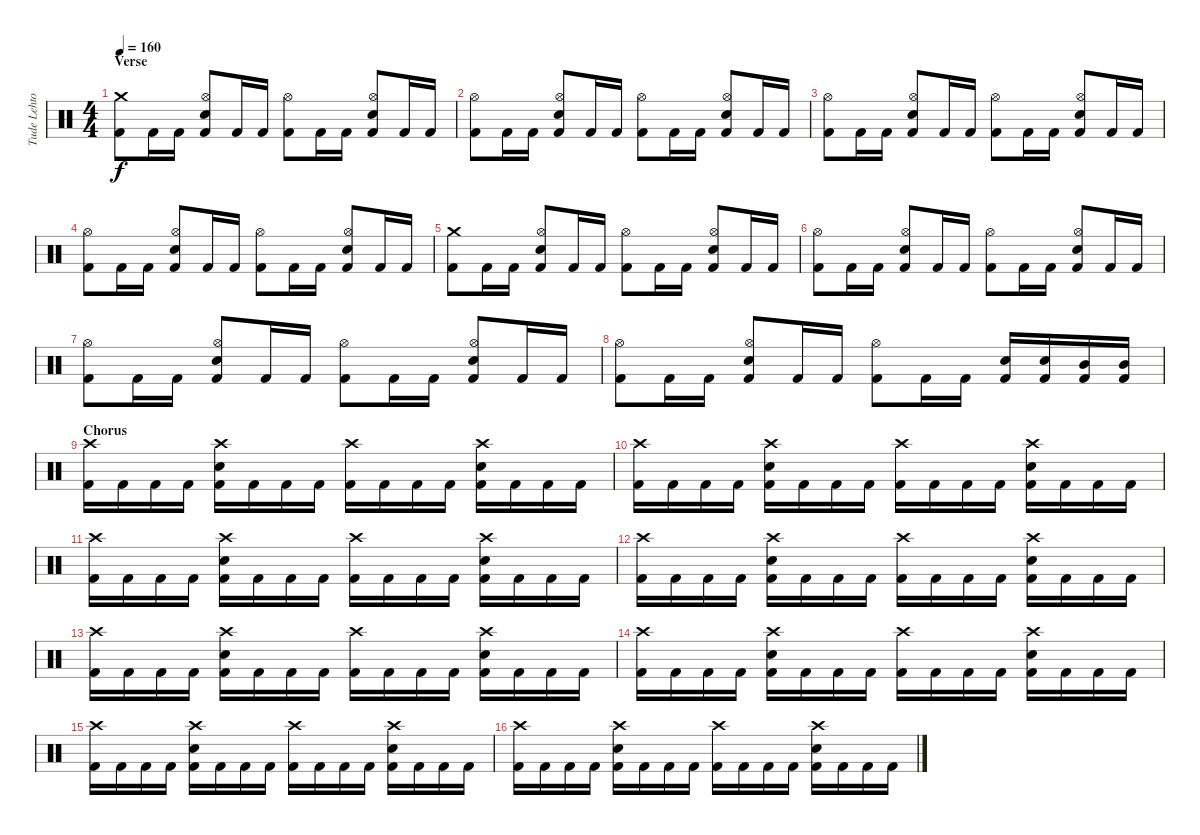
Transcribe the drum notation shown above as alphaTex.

\track ("Tude Lehtonen" "Tude Lehto") {instrument percussion}
\staff {score}
\articulation defaults
\ts (4 4)
\section ("" "Verse")
\tempo 160
\clef neutral
\ks c
("Crash medium (hit)" "Kick (hit) 2").8{dy f} "Kick (hit) 2".16 "Kick (hit) 2".16 ("Hi-Hat (open)" "Snare (hit) 2" "Kick (hit) 2").8 "Kick (hit) 2".16 "Kick (hit) 2".16 ("Hi-Hat (open)" "Kick (hit) 2").8 "Kick (hit) 2".16 "Kick (hit) 2".16 ("Hi-Hat (open)" "Snare (hit) 2" "Kick (hit) 2").8 "Kick (hit) 2".16 "Kick (hit) 2".16 |
("Hi-Hat (open)" "Kick (hit) 2").8 "Kick (hit) 2".16 "Kick (hit) 2".16 ("Hi-Hat (open)" "Snare (hit) 2" "Kick (hit) 2").8 "Kick (hit) 2".16 "Kick (hit) 2".16 ("Hi-Hat (open)" "Kick (hit) 2").8 "Kick (hit) 2".16 "Kick (hit) 2".16 ("Hi-Hat (open)" "Snare (hit) 2" "Kick (hit) 2").8 "Kick (hit) 2".16 "Kick (hit) 2".16 |
("Hi-Hat (open)" "Kick (hit) 2").8 "Kick (hit) 2".16 "Kick (hit) 2".16 ("Hi-Hat (open)" "Snare (hit) 2" "Kick (hit) 2").8 "Kick (hit) 2".16 "Kick (hit) 2".16 ("Hi-Hat (open)" "Kick (hit) 2").8 "Kick (hit) 2".16 "Kick (hit) 2".16 ("Hi-Hat (open)" "Snare (hit) 2" "Kick (hit) 2").8 "Kick (hit) 2".16 "Kick (hit) 2".16 |
("Hi-Hat (open)" "Kick (hit) 2").8 "Kick (hit) 2".16 "Kick (hit) 2".16 ("Hi-Hat (open)" "Snare (hit) 2" "Kick (hit) 2").8 "Kick (hit) 2".16 "Kick (hit) 2".16 ("Hi-Hat (open)" "Kick (hit) 2").8 "Kick (hit) 2".16 "Kick (hit) 2".16 ("Hi-Hat (open)" "Snare (hit) 2" "Kick (hit) 2").8 "Kick (hit) 2".16 "Kick (hit) 2".16 |
("Crash medium (hit)" "Kick (hit) 2").8 "Kick (hit) 2".16 "Kick (hit) 2".16 ("Hi-Hat (open)" "Snare (hit) 2" "Kick (hit) 2").8 "Kick (hit) 2".16 "Kick (hit) 2".16 ("Hi-Hat (open)" "Kick (hit) 2").8 "Kick (hit) 2".16 "Kick (hit) 2".16 ("Hi-Hat (open)" "Snare (hit) 2" "Kick (hit) 2").8 "Kick (hit) 2".16 "Kick (hit) 2".16 |
("Hi-Hat (open)" "Kick (hit) 2").8 "Kick (hit) 2".16 "Kick (hit) 2".16 ("Hi-Hat (open)" "Snare (hit) 2" "Kick (hit) 2").8 "Kick (hit) 2".16 "Kick (hit) 2".16 ("Hi-Hat (open)" "Kick (hit) 2").8 "Kick (hit) 2".16 "Kick (hit) 2".16 ("Hi-Hat (open)" "Snare (hit) 2" "Kick (hit) 2").8 "Kick (hit) 2".16 "Kick (hit) 2".16 |
("Hi-Hat (open)" "Kick (hit) 2").8 "Kick (hit) 2".16 "Kick (hit) 2".16 ("Hi-Hat (open)" "Snare (hit) 2" "Kick (hit) 2").8 "Kick (hit) 2".16 "Kick (hit) 2".16 ("Hi-Hat (open)" "Kick (hit) 2").8 "Kick (hit) 2".16 "Kick (hit) 2".16 ("Hi-Hat (open)" "Snare (hit) 2" "Kick (hit) 2").8 "Kick (hit) 2".16 "Kick (hit) 2".16 |
("Hi-Hat (open)" "Kick (hit) 2").8 "Kick (hit) 2".16 "Kick (hit) 2".16 ("Hi-Hat (open)" "Snare (hit) 2" "Kick (hit) 2").8 "Kick (hit) 2".16 "Kick (hit) 2".16 ("Hi-Hat (open)" "Kick (hit) 2").8 "Kick (hit) 2".16 "Kick (hit) 2".16 ("Snare (hit) 2" "Kick (hit) 2").16 ("Snare (hit) 2" "Kick (hit) 2").16 ("Mid Tom (hit)" "Kick (hit) 2").16 ("Mid Tom (hit)" "Kick (hit) 2").16 |
\section ("" "Chorus")
("Crash high (hit)" "Kick (hit) 2").16 "Kick (hit) 2".16 "Kick (hit) 2".16 "Kick (hit) 2".16 ("Crash high (hit)" "Snare (hit) 2" "Kick (hit) 2").16 "Kick (hit) 2".16 "Kick (hit) 2".16 "Kick (hit) 2".16 ("Crash high (hit)" "Kick (hit) 2").16 "Kick (hit) 2".16 "Kick (hit) 2".16 "Kick (hit) 2".16 ("Crash high (hit)" "Snare (hit) 2" "Kick (hit) 2").16 "Kick (hit) 2".16 "Kick (hit) 2".16 "Kick (hit) 2".16 |
("Crash high (hit)" "Kick (hit) 2").16 "Kick (hit) 2".16 "Kick (hit) 2".16 "Kick (hit) 2".16 ("Crash high (hit)" "Snare (hit) 2" "Kick (hit) 2").16 "Kick (hit) 2".16 "Kick (hit) 2".16 "Kick (hit) 2".16 ("Crash high (hit)" "Kick (hit) 2").16 "Kick (hit) 2".16 "Kick (hit) 2".16 "Kick (hit) 2".16 ("Crash high (hit)" "Snare (hit) 2" "Kick (hit) 2").16 "Kick (hit) 2".16 "Kick (hit) 2".16 "Kick (hit) 2".16 |
("Crash high (hit)" "Kick (hit) 2").16 "Kick (hit) 2".16 "Kick (hit) 2".16 "Kick (hit) 2".16 ("Crash high (hit)" "Snare (hit) 2" "Kick (hit) 2").16 "Kick (hit) 2".16 "Kick (hit) 2".16 "Kick (hit) 2".16 ("Crash high (hit)" "Kick (hit) 2").16 "Kick (hit) 2".16 "Kick (hit) 2".16 "Kick (hit) 2".16 ("Crash high (hit)" "Snare (hit) 2" "Kick (hit) 2").16 "Kick (hit) 2".16 "Kick (hit) 2".16 "Kick (hit) 2".16 |
("Crash high (hit)" "Kick (hit) 2").16 "Kick (hit) 2".16 "Kick (hit) 2".16 "Kick (hit) 2".16 ("Crash high (hit)" "Snare (hit) 2" "Kick (hit) 2").16 "Kick (hit) 2".16 "Kick (hit) 2".16 "Kick (hit) 2".16 ("Crash high (hit)" "Kick (hit) 2").16 "Kick (hit) 2".16 "Kick (hit) 2".16 "Kick (hit) 2".16 ("Crash high (hit)" "Snare (hit) 2" "Kick (hit) 2").16 "Kick (hit) 2".16 "Kick (hit) 2".16 "Kick (hit) 2".16 |
("Crash high (hit)" "Kick (hit) 2").16 "Kick (hit) 2".16 "Kick (hit) 2".16 "Kick (hit) 2".16 ("Crash high (hit)" "Snare (hit) 2" "Kick (hit) 2").16 "Kick (hit) 2".16 "Kick (hit) 2".16 "Kick (hit) 2".16 ("Crash high (hit)" "Kick (hit) 2").16 "Kick (hit) 2".16 "Kick (hit) 2".16 "Kick (hit) 2".16 ("Crash high (hit)" "Snare (hit) 2" "Kick (hit) 2").16 "Kick (hit) 2".16 "Kick (hit) 2".16 "Kick (hit) 2".16 |
("Crash high (hit)" "Kick (hit) 2").16 "Kick (hit) 2".16 "Kick (hit) 2".16 "Kick (hit) 2".16 ("Crash high (hit)" "Snare (hit) 2" "Kick (hit) 2").16 "Kick (hit) 2".16 "Kick (hit) 2".16 "Kick (hit) 2".16 ("Crash high (hit)" "Kick (hit) 2").16 "Kick (hit) 2".16 "Kick (hit) 2".16 "Kick (hit) 2".16 ("Crash high (hit)" "Snare (hit) 2" "Kick (hit) 2").16 "Kick (hit) 2".16 "Kick (hit) 2".16 "Kick (hit) 2".16 |
("Crash high (hit)" "Kick (hit) 2").16 "Kick (hit) 2".16 "Kick (hit) 2".16 "Kick (hit) 2".16 ("Crash high (hit)" "Snare (hit) 2" "Kick (hit) 2").16 "Kick (hit) 2".16 "Kick (hit) 2".16 "Kick (hit) 2".16 ("Crash high (hit)" "Kick (hit) 2").16 "Kick (hit) 2".16 "Kick (hit) 2".16 "Kick (hit) 2".16 ("Crash high (hit)" "Snare (hit) 2" "Kick (hit) 2").16 "Kick (hit) 2".16 "Kick (hit) 2".16 "Kick (hit) 2".16 |
("Crash high (hit)" "Kick (hit) 2").16 "Kick (hit) 2".16 "Kick (hit) 2".16 "Kick (hit) 2".16 ("Crash high (hit)" "Snare (hit) 2" "Kick (hit) 2").16 "Kick (hit) 2".16 "Kick (hit) 2".16 "Kick (hit) 2".16 ("Crash high (hit)" "Kick (hit) 2").16 "Kick (hit) 2".16 "Kick (hit) 2".16 "Kick (hit) 2".16 ("Crash high (hit)" "Snare (hit) 2" "Kick (hit) 2").16 "Kick (hit) 2".16 "Kick (hit) 2".16 "Kick (hit) 2".16
